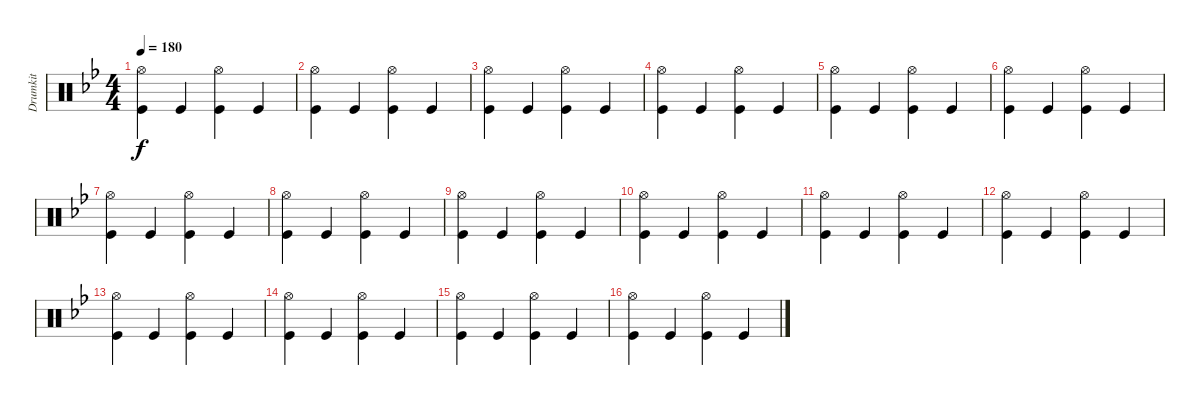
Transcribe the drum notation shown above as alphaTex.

\track ("Drumkit" "Drumkit") {instrument percussion}
\staff {score}
\articulation defaults
\ts (4 4)
\tempo 180
\clef neutral
\ks bb
("Hi-Hat (open)" "Kick (hit)").4{dy f} "Kick (hit)".4 ("Hi-Hat (open)" "Kick (hit)").4 "Kick (hit)".4 |
("Hi-Hat (open)" "Kick (hit)").4 "Kick (hit)".4 ("Hi-Hat (open)" "Kick (hit)").4 "Kick (hit)".4 |
("Hi-Hat (open)" "Kick (hit)").4 "Kick (hit)".4 ("Hi-Hat (open)" "Kick (hit)").4 "Kick (hit)".4 |
("Hi-Hat (open)" "Kick (hit)").4 "Kick (hit)".4 ("Hi-Hat (open)" "Kick (hit)").4 "Kick (hit)".4 |
("Hi-Hat (open)" "Kick (hit)").4 "Kick (hit)".4 ("Hi-Hat (open)" "Kick (hit)").4 "Kick (hit)".4 |
("Hi-Hat (open)" "Kick (hit)").4 "Kick (hit)".4 ("Hi-Hat (open)" "Kick (hit)").4 "Kick (hit)".4 |
("Hi-Hat (open)" "Kick (hit)").4 "Kick (hit)".4 ("Hi-Hat (open)" "Kick (hit)").4 "Kick (hit)".4 |
("Hi-Hat (open)" "Kick (hit)").4 "Kick (hit)".4 ("Hi-Hat (open)" "Kick (hit)").4 "Kick (hit)".4 |
("Hi-Hat (open)" "Kick (hit)").4 "Kick (hit)".4 ("Hi-Hat (open)" "Kick (hit)").4 "Kick (hit)".4 |
("Hi-Hat (open)" "Kick (hit)").4 "Kick (hit)".4 ("Hi-Hat (open)" "Kick (hit)").4 "Kick (hit)".4 |
("Hi-Hat (open)" "Kick (hit)").4 "Kick (hit)".4 ("Hi-Hat (open)" "Kick (hit)").4 "Kick (hit)".4 |
("Hi-Hat (open)" "Kick (hit)").4 "Kick (hit)".4 ("Hi-Hat (open)" "Kick (hit)").4 "Kick (hit)".4 |
("Hi-Hat (open)" "Kick (hit)").4 "Kick (hit)".4 ("Hi-Hat (open)" "Kick (hit)").4 "Kick (hit)".4 |
("Hi-Hat (open)" "Kick (hit)").4 "Kick (hit)".4 ("Hi-Hat (open)" "Kick (hit)").4 "Kick (hit)".4 |
("Hi-Hat (open)" "Kick (hit)").4 "Kick (hit)".4 ("Hi-Hat (open)" "Kick (hit)").4 "Kick (hit)".4 |
("Hi-Hat (open)" "Kick (hit)").4 "Kick (hit)".4 ("Hi-Hat (open)" "Kick (hit)").4 "Kick (hit)".4
